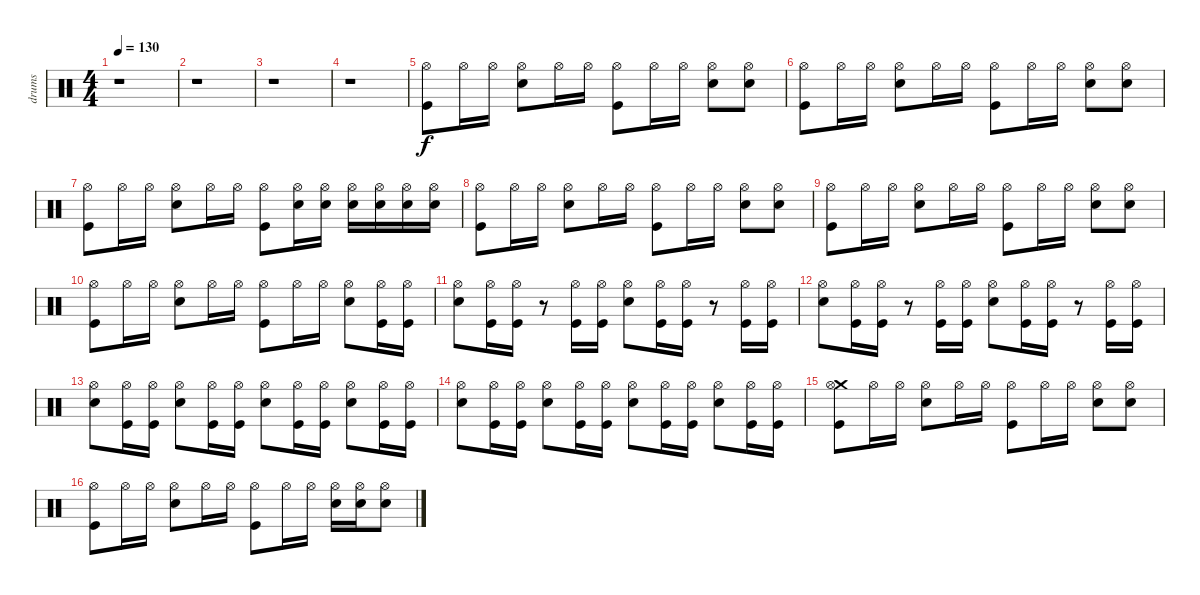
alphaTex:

\track ("drums" "drums") {instrument percussion}
\staff {score}
\articulation defaults
\ts (4 4)
\tempo 130
\clef neutral
\ks c
r.1{dy f} |
r.1 |
r.1 |
r.1 |
("Hi-Hat (open)" "Kick (hit)").8 "Hi-Hat (open)".16 "Hi-Hat (open)".16 ("Hi-Hat (open)" "Snare (hit) 2").8 "Hi-Hat (open)".16 "Hi-Hat (open)".16 ("Hi-Hat (open)" "Kick (hit)").8 "Hi-Hat (open)".16 "Hi-Hat (open)".16 ("Snare (hit) 2" "Hi-Hat (open)").8 ("Snare (hit) 2" "Hi-Hat (open)").8 |
("Hi-Hat (open)" "Kick (hit)").8 "Hi-Hat (open)".16 "Hi-Hat (open)".16 ("Hi-Hat (open)" "Snare (hit) 2").8 "Hi-Hat (open)".16 "Hi-Hat (open)".16 ("Hi-Hat (open)" "Kick (hit)").8 "Hi-Hat (open)".16 "Hi-Hat (open)".16 ("Snare (hit) 2" "Hi-Hat (open)").8 ("Snare (hit) 2" "Hi-Hat (open)").8 |
("Hi-Hat (open)" "Kick (hit)").8 "Hi-Hat (open)".16 "Hi-Hat (open)".16 ("Hi-Hat (open)" "Snare (hit) 2").8 "Hi-Hat (open)".16 "Hi-Hat (open)".16 ("Hi-Hat (open)" "Kick (hit)").8 ("Hi-Hat (open)" "Snare (hit) 2").16 ("Hi-Hat (open)" "Snare (hit) 2").16 ("Snare (hit) 2" "Hi-Hat (open)").16 ("Snare (hit) 2" "Hi-Hat (open)").16 ("Hi-Hat (open)" "Snare (hit) 2").16 ("Hi-Hat (open)" "Snare (hit) 2").16 |
("Hi-Hat (open)" "Kick (hit)").8 "Hi-Hat (open)".16 "Hi-Hat (open)".16 ("Hi-Hat (open)" "Snare (hit) 2").8 "Hi-Hat (open)".16 "Hi-Hat (open)".16 ("Hi-Hat (open)" "Kick (hit)").8 "Hi-Hat (open)".16 "Hi-Hat (open)".16 ("Snare (hit) 2" "Hi-Hat (open)").8 ("Snare (hit) 2" "Hi-Hat (open)").8 |
("Hi-Hat (open)" "Kick (hit)").8 "Hi-Hat (open)".16 "Hi-Hat (open)".16 ("Hi-Hat (open)" "Snare (hit) 2").8 "Hi-Hat (open)".16 "Hi-Hat (open)".16 ("Hi-Hat (open)" "Kick (hit)").8 "Hi-Hat (open)".16 "Hi-Hat (open)".16 ("Snare (hit) 2" "Hi-Hat (open)").8 ("Snare (hit) 2" "Hi-Hat (open)").8 |
("Hi-Hat (open)" "Kick (hit)").8 "Hi-Hat (open)".16 "Hi-Hat (open)".16 ("Hi-Hat (open)" "Snare (hit) 2").8 "Hi-Hat (open)".16 "Hi-Hat (open)".16 ("Hi-Hat (open)" "Kick (hit)").8 "Hi-Hat (open)".16 "Hi-Hat (open)".16 ("Snare (hit) 2" "Hi-Hat (open)").8 ("Kick (hit)" "Hi-Hat (open)").16 ("Kick (hit)" "Hi-Hat (open)").16 |
("Hi-Hat (open)" "Snare (hit) 2").8 ("Hi-Hat (open)" "Kick (hit)").16 ("Hi-Hat (open)" "Kick (hit)").16 r.8 ("Hi-Hat (open)" "Kick (hit)").16 ("Hi-Hat (open)" "Kick (hit)").16 ("Hi-Hat (open)" "Snare (hit) 2").8 ("Kick (hit)" "Hi-Hat (open)").16 ("Kick (hit)" "Hi-Hat (open)").16 r.8 ("Hi-Hat (open)" "Kick (hit)").16 ("Hi-Hat (open)" "Kick (hit)").16 |
("Hi-Hat (open)" "Snare (hit) 2").8 ("Hi-Hat (open)" "Kick (hit)").16 ("Hi-Hat (open)" "Kick (hit)").16 r.8 ("Hi-Hat (open)" "Kick (hit)").16 ("Hi-Hat (open)" "Kick (hit)").16 ("Hi-Hat (open)" "Snare (hit) 2").8 ("Kick (hit)" "Hi-Hat (open)").16 ("Kick (hit)" "Hi-Hat (open)").16 r.8 ("Hi-Hat (open)" "Kick (hit)").16 ("Hi-Hat (open)" "Kick (hit)").16 |
("Hi-Hat (open)" "Snare (hit) 2").8 ("Hi-Hat (open)" "Kick (hit)").16 ("Hi-Hat (open)" "Kick (hit)").16 ("Snare (hit) 2" "Hi-Hat (open)").8 ("Hi-Hat (open)" "Kick (hit)").16 ("Hi-Hat (open)" "Kick (hit)").16 ("Hi-Hat (open)" "Snare (hit) 2").8 ("Kick (hit)" "Hi-Hat (open)").16 ("Kick (hit)" "Hi-Hat (open)").16 ("Snare (hit) 2" "Hi-Hat (open)").8 ("Hi-Hat (open)" "Kick (hit)").16 ("Hi-Hat (open)" "Kick (hit)").16 |
("Hi-Hat (open)" "Snare (hit) 2").8 ("Hi-Hat (open)" "Kick (hit)").16 ("Hi-Hat (open)" "Kick (hit)").16 ("Snare (hit) 2" "Hi-Hat (open)").8 ("Hi-Hat (open)" "Kick (hit)").16 ("Hi-Hat (open)" "Kick (hit)").16 ("Hi-Hat (open)" "Snare (hit) 2").8 ("Kick (hit)" "Hi-Hat (open)").16 ("Kick (hit)" "Hi-Hat (open)").16 ("Snare (hit) 2" "Hi-Hat (open)").8 ("Hi-Hat (open)" "Kick (hit)").16 ("Hi-Hat (open)" "Kick (hit)").16 |
("Crash medium (hit)" "Hi-Hat (open)" "Kick (hit)").8 "Hi-Hat (open)".16 "Hi-Hat (open)".16 ("Hi-Hat (open)" "Snare (hit) 2").8 "Hi-Hat (open)".16 "Hi-Hat (open)".16 ("Hi-Hat (open)" "Kick (hit)").8 "Hi-Hat (open)".16 "Hi-Hat (open)".16 ("Snare (hit) 2" "Hi-Hat (open)").8 ("Snare (hit) 2" "Hi-Hat (open)").8 |
("Hi-Hat (open)" "Kick (hit)").8 "Hi-Hat (open)".16 "Hi-Hat (open)".16 ("Hi-Hat (open)" "Snare (hit) 2").8 "Hi-Hat (open)".16 "Hi-Hat (open)".16 ("Hi-Hat (open)" "Kick (hit)").8 "Hi-Hat (open)".16 "Hi-Hat (open)".16 ("Snare (hit) 2" "Hi-Hat (open)").16 ("Snare (hit) 2" "Hi-Hat (open)").16 ("Snare (hit) 2" "Hi-Hat (open)").8
